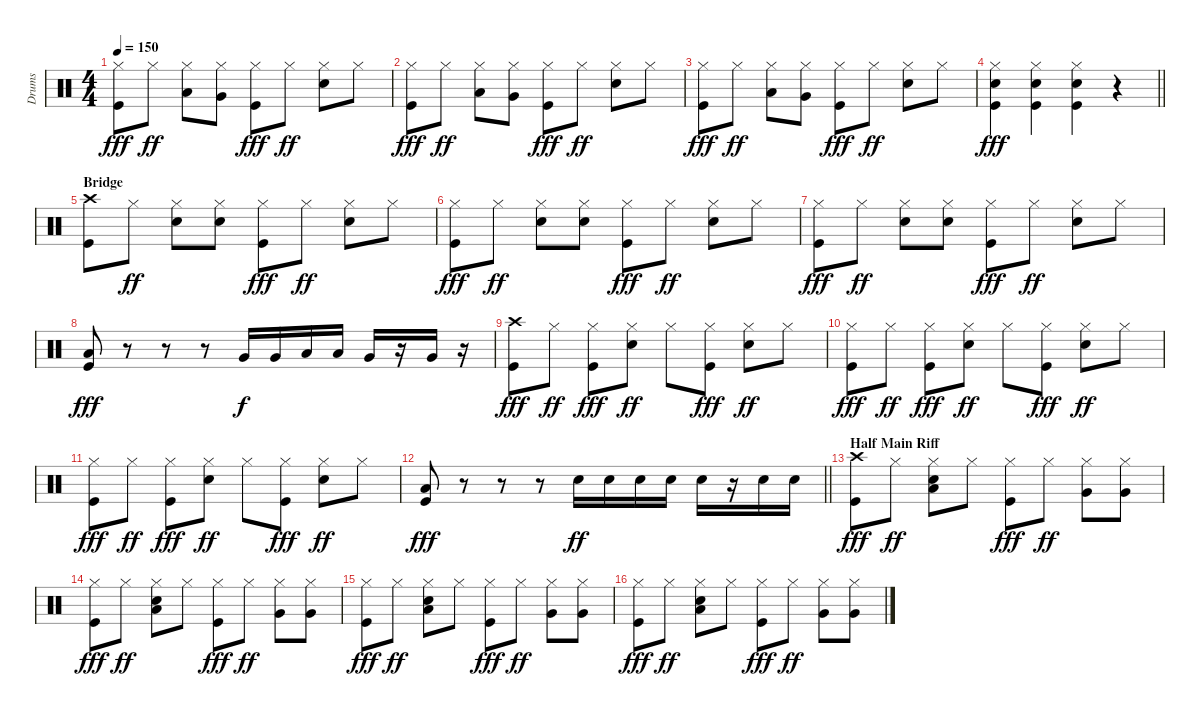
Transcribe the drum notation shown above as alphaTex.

\track ("Drums" "Drums") {instrument percussion}
\staff {score}
\articulation defaults
\ts (4 4)
\tempo 150
\clef neutral
\ks c
("Hi-Hat (closed)" "Kick (hit)").8{dy fff} "Hi-Hat (closed)".8{dy ff} ("Hi-Hat (closed)" "Low Floor Tom (hit)").8 ("Hi-Hat (closed)" "Very Low Tom (hit)").8 ("Hi-Hat (closed)" "Kick (hit)").8{dy fff} "Hi-Hat (closed)".8{dy ff} ("Hi-Hat (closed)" "Electric Snare (hit)").8 "Hi-Hat (closed)".8 |
("Hi-Hat (closed)" "Kick (hit)").8{dy fff} "Hi-Hat (closed)".8{dy ff} ("Hi-Hat (closed)" "Low Floor Tom (hit)").8 ("Hi-Hat (closed)" "Very Low Tom (hit)").8 ("Hi-Hat (closed)" "Kick (hit)").8{dy fff} "Hi-Hat (closed)".8{dy ff} ("Hi-Hat (closed)" "Electric Snare (hit)").8 "Hi-Hat (closed)".8 |
("Hi-Hat (closed)" "Kick (hit)").8{dy fff} "Hi-Hat (closed)".8{dy ff} ("Hi-Hat (closed)" "Low Floor Tom (hit)").8 ("Hi-Hat (closed)" "Very Low Tom (hit)").8 ("Hi-Hat (closed)" "Kick (hit)").8{dy fff} "Hi-Hat (closed)".8{dy ff} ("Hi-Hat (closed)" "Electric Snare (hit)").8 "Hi-Hat (closed)".8 |
\barLineRight lightlight
("Hi-Hat (closed)" "Snare (hit) 2" "Kick (hit)").4{dy fff} ("Hi-Hat (closed)" "Snare (hit) 2" "Kick (hit)").4 ("Hi-Hat (closed)" "Snare (hit) 2" "Kick (hit)").4 r.4 |
\section ("" "Bridge")
("Crash high (hit)" "Kick (hit)").8 "Hi-Hat (closed)".8{dy ff} ("Hi-Hat (closed)" "Electric Snare (hit)").8 ("Hi-Hat (closed)" "Electric Snare (hit)").8 ("Hi-Hat (closed)" "Kick (hit)").8{dy fff} "Hi-Hat (closed)".8{dy ff} ("Hi-Hat (closed)" "Electric Snare (hit)").8 "Hi-Hat (closed)".8 |
("Hi-Hat (closed)" "Kick (hit)").8{dy fff} "Hi-Hat (closed)".8{dy ff} ("Hi-Hat (closed)" "Electric Snare (hit)").8 ("Hi-Hat (closed)" "Electric Snare (hit)").8 ("Hi-Hat (closed)" "Kick (hit)").8{dy fff} "Hi-Hat (closed)".8{dy ff} ("Hi-Hat (closed)" "Electric Snare (hit)").8 "Hi-Hat (closed)".8 |
("Hi-Hat (closed)" "Kick (hit)").8{dy fff} "Hi-Hat (closed)".8{dy ff} ("Hi-Hat (closed)" "Electric Snare (hit)").8 ("Hi-Hat (closed)" "Electric Snare (hit)").8 ("Hi-Hat (closed)" "Kick (hit)").8{dy fff} "Hi-Hat (closed)".8{dy ff} ("Hi-Hat (closed)" "Electric Snare (hit)").8 "Hi-Hat (closed)".8 |
("Low Floor Tom (hit)" "Kick (hit)").8{dy fff} r.8 r.8 r.8 "Very Low Tom (hit)".16{dy f} "Very Low Tom (hit)".16 "Low Floor Tom (hit)".16 "Low Floor Tom (hit)".16 "Very Low Tom (hit)".16 r.16 "Very Low Tom (hit)".16 r.16 |
("Crash high (hit)" "Kick (hit)").8{dy fff} "Hi-Hat (closed)".8{dy ff} ("Hi-Hat (closed)" "Kick (hit)").8{dy fff} ("Hi-Hat (closed)" "Electric Snare (hit)").8{dy ff} "Hi-Hat (closed)".8 ("Hi-Hat (closed)" "Kick (hit)").8{dy fff} ("Hi-Hat (closed)" "Electric Snare (hit)").8{dy ff} "Hi-Hat (closed)".8 |
("Hi-Hat (closed)" "Kick (hit)").8{dy fff} "Hi-Hat (closed)".8{dy ff} ("Hi-Hat (closed)" "Kick (hit)").8{dy fff} ("Hi-Hat (closed)" "Electric Snare (hit)").8{dy ff} "Hi-Hat (closed)".8 ("Hi-Hat (closed)" "Kick (hit)").8{dy fff} ("Hi-Hat (closed)" "Electric Snare (hit)").8{dy ff} "Hi-Hat (closed)".8 |
("Hi-Hat (closed)" "Kick (hit)").8{dy fff} "Hi-Hat (closed)".8{dy ff} ("Hi-Hat (closed)" "Kick (hit)").8{dy fff} ("Hi-Hat (closed)" "Electric Snare (hit)").8{dy ff} "Hi-Hat (closed)".8 ("Hi-Hat (closed)" "Kick (hit)").8{dy fff} ("Hi-Hat (closed)" "Electric Snare (hit)").8{dy ff} "Hi-Hat (closed)".8 |
\barLineRight lightlight
("Low Floor Tom (hit)" "Kick (hit)").8{dy fff} r.8 r.8 r.8 "Electric Snare (hit)".16{dy ff} "Electric Snare (hit)".16 "Electric Snare (hit)".16 "Electric Snare (hit)".16 "Electric Snare (hit)".16 r.16 "Electric Snare (hit)".16 "Electric Snare (hit)".16 |
\section ("" "Half Main Riff")
("Crash high (hit)" "Kick (hit)").8{dy fff} "Hi-Hat (closed)".8{dy ff} ("Hi-Hat (closed)" "Snare (hit) 2" "Low Floor Tom (hit)").8 "Hi-Hat (closed)".8 ("Hi-Hat (closed)" "Kick (hit)").8{dy fff} "Hi-Hat (closed)".8{dy ff} ("Hi-Hat (closed)" "Very Low Tom (hit)").8 ("Hi-Hat (closed)" "Very Low Tom (hit)").8 |
("Hi-Hat (closed)" "Kick (hit)").8{dy fff} "Hi-Hat (closed)".8{dy ff} ("Hi-Hat (closed)" "Snare (hit) 2" "Low Floor Tom (hit)").8 "Hi-Hat (closed)".8 ("Hi-Hat (closed)" "Kick (hit)").8{dy fff} "Hi-Hat (closed)".8{dy ff} ("Hi-Hat (closed)" "Very Low Tom (hit)").8 ("Hi-Hat (closed)" "Very Low Tom (hit)").8 |
("Hi-Hat (closed)" "Kick (hit)").8{dy fff} "Hi-Hat (closed)".8{dy ff} ("Hi-Hat (closed)" "Snare (hit) 2" "Low Floor Tom (hit)").8 "Hi-Hat (closed)".8 ("Hi-Hat (closed)" "Kick (hit)").8{dy fff} "Hi-Hat (closed)".8{dy ff} ("Hi-Hat (closed)" "Very Low Tom (hit)").8 ("Hi-Hat (closed)" "Very Low Tom (hit)").8 |
("Hi-Hat (closed)" "Kick (hit)").8{dy fff} "Hi-Hat (closed)".8{dy ff} ("Hi-Hat (closed)" "Snare (hit) 2" "Low Floor Tom (hit)").8 "Hi-Hat (closed)".8 ("Hi-Hat (closed)" "Kick (hit)").8{dy fff} "Hi-Hat (closed)".8{dy ff} ("Hi-Hat (closed)" "Very Low Tom (hit)").8 ("Hi-Hat (closed)" "Very Low Tom (hit)").8
